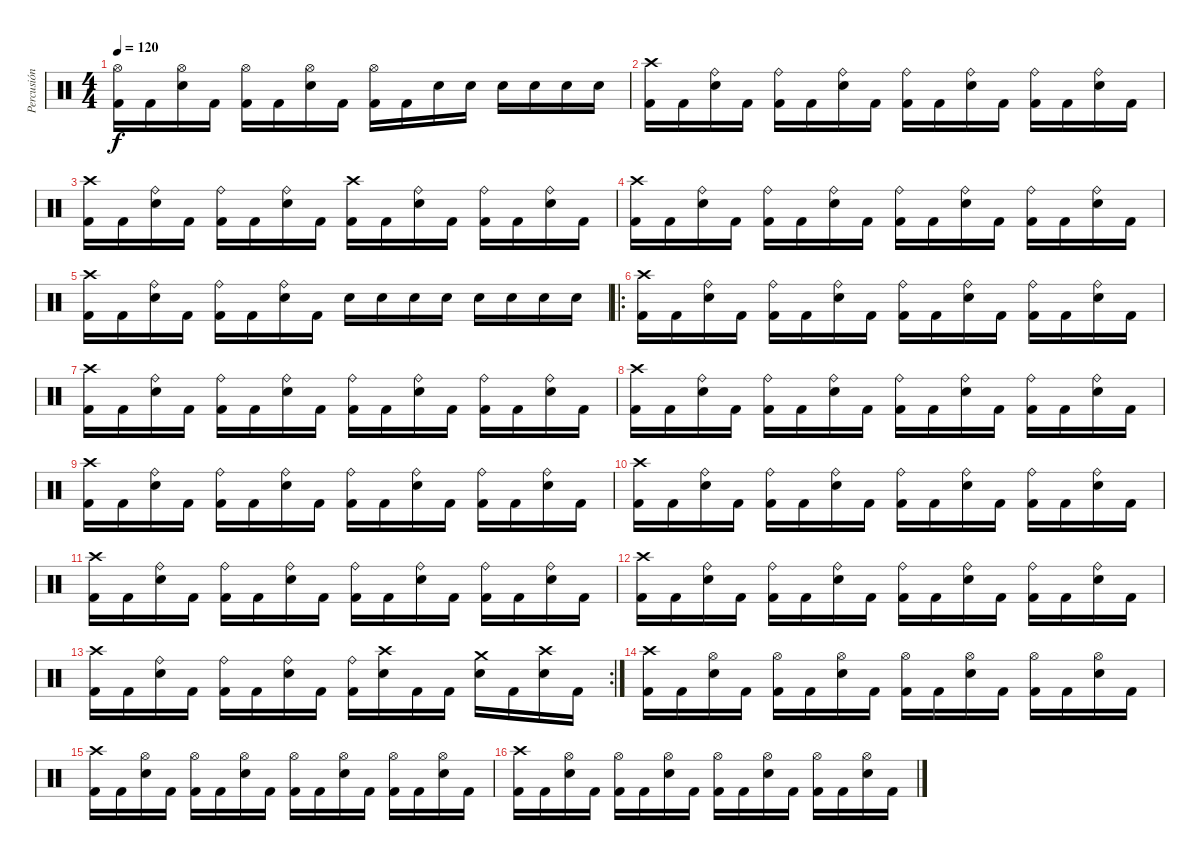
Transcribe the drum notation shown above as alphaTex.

\track ("Percusión" "Percusión") {instrument percussion}
\staff {score}
\articulation defaults
\ts (4 4)
\tempo 120
\clef neutral
\ks c
("Hi-Hat (open)" "Kick (hit) 2").16{dy f} "Kick (hit) 2".16 ("Hi-Hat (open)" "Electric Snare (hit)").16 "Kick (hit) 2".16 ("Hi-Hat (open)" "Kick (hit) 2").16 "Kick (hit) 2".16 ("Hi-Hat (open)" "Electric Snare (hit)").16 "Kick (hit) 2".16 ("Hi-Hat (open)" "Kick (hit) 2").16 "Kick (hit) 2".16 "Electric Snare (hit)".16 "Electric Snare (hit)".16 "Electric Snare (hit)".16 "Electric Snare (hit)".16 "Electric Snare (hit)".16 "Electric Snare (hit)".16 |
("Crash high (hit)" "Kick (hit) 2").16 "Kick (hit) 2".16 ("Ride (bell)" "Electric Snare (hit)").16 "Kick (hit) 2".16 ("Ride (bell)" "Kick (hit) 2").16 "Kick (hit) 2".16 ("Ride (bell)" "Electric Snare (hit)").16 "Kick (hit) 2".16 ("Ride (bell)" "Kick (hit) 2").16 "Kick (hit) 2".16 ("Ride (bell)" "Electric Snare (hit)").16 "Kick (hit) 2".16 ("Ride (bell)" "Kick (hit) 2").16 "Kick (hit) 2".16 ("Ride (bell)" "Electric Snare (hit)").16 "Kick (hit) 2".16 |
("Crash high (hit)" "Kick (hit) 2").16 "Kick (hit) 2".16 ("Ride (bell)" "Electric Snare (hit)").16 "Kick (hit) 2".16 ("Ride (bell)" "Kick (hit) 2").16 "Kick (hit) 2".16 ("Ride (bell)" "Electric Snare (hit)").16 "Kick (hit) 2".16 ("Crash high (hit)" "Kick (hit) 2").16 "Kick (hit) 2".16 ("Ride (bell)" "Electric Snare (hit)").16 "Kick (hit) 2".16 ("Ride (bell)" "Kick (hit) 2").16 "Kick (hit) 2".16 ("Ride (bell)" "Electric Snare (hit)").16 "Kick (hit) 2".16 |
("Crash high (hit)" "Kick (hit) 2").16 "Kick (hit) 2".16 ("Ride (bell)" "Electric Snare (hit)").16 "Kick (hit) 2".16 ("Ride (bell)" "Kick (hit) 2").16 "Kick (hit) 2".16 ("Ride (bell)" "Electric Snare (hit)").16 "Kick (hit) 2".16 ("Ride (bell)" "Kick (hit) 2").16 "Kick (hit) 2".16 ("Ride (bell)" "Electric Snare (hit)").16 "Kick (hit) 2".16 ("Ride (bell)" "Kick (hit) 2").16 "Kick (hit) 2".16 ("Ride (bell)" "Electric Snare (hit)").16 "Kick (hit) 2".16 |
("Crash high (hit)" "Kick (hit) 2").16 "Kick (hit) 2".16 ("Ride (bell)" "Electric Snare (hit)").16 "Kick (hit) 2".16 ("Ride (bell)" "Kick (hit) 2").16 "Kick (hit) 2".16 ("Ride (bell)" "Electric Snare (hit)").16 "Kick (hit) 2".16 "Electric Snare (hit)".16 "Electric Snare (hit)".16 "Electric Snare (hit)".16 "Electric Snare (hit)".16 "Electric Snare (hit)".16 "Electric Snare (hit)".16 "Electric Snare (hit)".16 "Electric Snare (hit)".16 |
\ro
("Crash high (hit)" "Kick (hit) 2").16 "Kick (hit) 2".16 ("Ride (bell)" "Electric Snare (hit)").16 "Kick (hit) 2".16 ("Ride (bell)" "Kick (hit) 2").16 "Kick (hit) 2".16 ("Ride (bell)" "Electric Snare (hit)").16 "Kick (hit) 2".16 ("Ride (bell)" "Kick (hit) 2").16 "Kick (hit) 2".16 ("Ride (bell)" "Electric Snare (hit)").16 "Kick (hit) 2".16 ("Ride (bell)" "Kick (hit) 2").16 "Kick (hit) 2".16 ("Ride (bell)" "Electric Snare (hit)").16 "Kick (hit) 2".16 |
("Crash high (hit)" "Kick (hit) 2").16 "Kick (hit) 2".16 ("Ride (bell)" "Electric Snare (hit)").16 "Kick (hit) 2".16 ("Ride (bell)" "Kick (hit) 2").16 "Kick (hit) 2".16 ("Ride (bell)" "Electric Snare (hit)").16 "Kick (hit) 2".16 ("Ride (bell)" "Kick (hit) 2").16 "Kick (hit) 2".16 ("Ride (bell)" "Electric Snare (hit)").16 "Kick (hit) 2".16 ("Ride (bell)" "Kick (hit) 2").16 "Kick (hit) 2".16 ("Ride (bell)" "Electric Snare (hit)").16 "Kick (hit) 2".16 |
("Crash high (hit)" "Kick (hit) 2").16 "Kick (hit) 2".16 ("Ride (bell)" "Electric Snare (hit)").16 "Kick (hit) 2".16 ("Ride (bell)" "Kick (hit) 2").16 "Kick (hit) 2".16 ("Ride (bell)" "Electric Snare (hit)").16 "Kick (hit) 2".16 ("Ride (bell)" "Kick (hit) 2").16 "Kick (hit) 2".16 ("Ride (bell)" "Electric Snare (hit)").16 "Kick (hit) 2".16 ("Ride (bell)" "Kick (hit) 2").16 "Kick (hit) 2".16 ("Ride (bell)" "Electric Snare (hit)").16 "Kick (hit) 2".16 |
("Crash high (hit)" "Kick (hit) 2").16 "Kick (hit) 2".16 ("Ride (bell)" "Electric Snare (hit)").16 "Kick (hit) 2".16 ("Ride (bell)" "Kick (hit) 2").16 "Kick (hit) 2".16 ("Ride (bell)" "Electric Snare (hit)").16 "Kick (hit) 2".16 ("Ride (bell)" "Kick (hit) 2").16 "Kick (hit) 2".16 ("Ride (bell)" "Electric Snare (hit)").16 "Kick (hit) 2".16 ("Ride (bell)" "Kick (hit) 2").16 "Kick (hit) 2".16 ("Ride (bell)" "Electric Snare (hit)").16 "Kick (hit) 2".16 |
("Crash high (hit)" "Kick (hit) 2").16 "Kick (hit) 2".16 ("Ride (bell)" "Electric Snare (hit)").16 "Kick (hit) 2".16 ("Ride (bell)" "Kick (hit) 2").16 "Kick (hit) 2".16 ("Ride (bell)" "Electric Snare (hit)").16 "Kick (hit) 2".16 ("Ride (bell)" "Kick (hit) 2").16 "Kick (hit) 2".16 ("Ride (bell)" "Electric Snare (hit)").16 "Kick (hit) 2".16 ("Ride (bell)" "Kick (hit) 2").16 "Kick (hit) 2".16 ("Ride (bell)" "Electric Snare (hit)").16 "Kick (hit) 2".16 |
("Crash high (hit)" "Kick (hit) 2").16 "Kick (hit) 2".16 ("Ride (bell)" "Electric Snare (hit)").16 "Kick (hit) 2".16 ("Ride (bell)" "Kick (hit) 2").16 "Kick (hit) 2".16 ("Ride (bell)" "Electric Snare (hit)").16 "Kick (hit) 2".16 ("Ride (bell)" "Kick (hit) 2").16 "Kick (hit) 2".16 ("Ride (bell)" "Electric Snare (hit)").16 "Kick (hit) 2".16 ("Ride (bell)" "Kick (hit) 2").16 "Kick (hit) 2".16 ("Ride (bell)" "Electric Snare (hit)").16 "Kick (hit) 2".16 |
("Crash high (hit)" "Kick (hit) 2").16 "Kick (hit) 2".16 ("Ride (bell)" "Electric Snare (hit)").16 "Kick (hit) 2".16 ("Ride (bell)" "Kick (hit) 2").16 "Kick (hit) 2".16 ("Ride (bell)" "Electric Snare (hit)").16 "Kick (hit) 2".16 ("Ride (bell)" "Kick (hit) 2").16 "Kick (hit) 2".16 ("Ride (bell)" "Electric Snare (hit)").16 "Kick (hit) 2".16 ("Ride (bell)" "Kick (hit) 2").16 "Kick (hit) 2".16 ("Ride (bell)" "Electric Snare (hit)").16 "Kick (hit) 2".16 |
\rc 2
("Crash high (hit)" "Kick (hit) 2").16 "Kick (hit) 2".16 ("Ride (bell)" "Electric Snare (hit)").16 "Kick (hit) 2".16 ("Ride (bell)" "Kick (hit) 2").16 "Kick (hit) 2".16 ("Ride (bell)" "Electric Snare (hit)").16 "Kick (hit) 2".16 ("Ride (bell)" "Kick (hit) 2").16 ("Crash high (hit)" "Electric Snare (hit)").16 "Kick (hit) 2".16 "Kick (hit) 2".16 ("Crash medium (hit)" "Electric Snare (hit)").16 "Kick (hit) 2".16 ("Crash high (hit)" "Electric Snare (hit)").16 "Kick (hit) 2".16 |
("Crash high (hit)" "Kick (hit) 2").16 "Kick (hit) 2".16 ("Hi-Hat (open)" "Electric Snare (hit)").16 "Kick (hit) 2".16 ("Hi-Hat (open)" "Kick (hit) 2").16 "Kick (hit) 2".16 ("Hi-Hat (open)" "Electric Snare (hit)").16 "Kick (hit) 2".16 ("Hi-Hat (open)" "Kick (hit) 2").16 "Kick (hit) 2".16 ("Hi-Hat (open)" "Electric Snare (hit)").16 "Kick (hit) 2".16 ("Hi-Hat (open)" "Kick (hit) 2").16 "Kick (hit) 2".16 ("Hi-Hat (open)" "Electric Snare (hit)").16 "Kick (hit) 2".16 |
("Crash high (hit)" "Kick (hit) 2").16 "Kick (hit) 2".16 ("Hi-Hat (open)" "Electric Snare (hit)").16 "Kick (hit) 2".16 ("Hi-Hat (open)" "Kick (hit) 2").16 "Kick (hit) 2".16 ("Hi-Hat (open)" "Electric Snare (hit)").16 "Kick (hit) 2".16 ("Hi-Hat (open)" "Kick (hit) 2").16 "Kick (hit) 2".16 ("Hi-Hat (open)" "Electric Snare (hit)").16 "Kick (hit) 2".16 ("Hi-Hat (open)" "Kick (hit) 2").16 "Kick (hit) 2".16 ("Hi-Hat (open)" "Electric Snare (hit)").16 "Kick (hit) 2".16 |
("Crash high (hit)" "Kick (hit) 2").16 "Kick (hit) 2".16 ("Hi-Hat (open)" "Electric Snare (hit)").16 "Kick (hit) 2".16 ("Hi-Hat (open)" "Kick (hit) 2").16 "Kick (hit) 2".16 ("Hi-Hat (open)" "Electric Snare (hit)").16 "Kick (hit) 2".16 ("Hi-Hat (open)" "Kick (hit) 2").16 "Kick (hit) 2".16 ("Hi-Hat (open)" "Electric Snare (hit)").16 "Kick (hit) 2".16 ("Hi-Hat (open)" "Kick (hit) 2").16 "Kick (hit) 2".16 ("Hi-Hat (open)" "Electric Snare (hit)").16 "Kick (hit) 2".16
